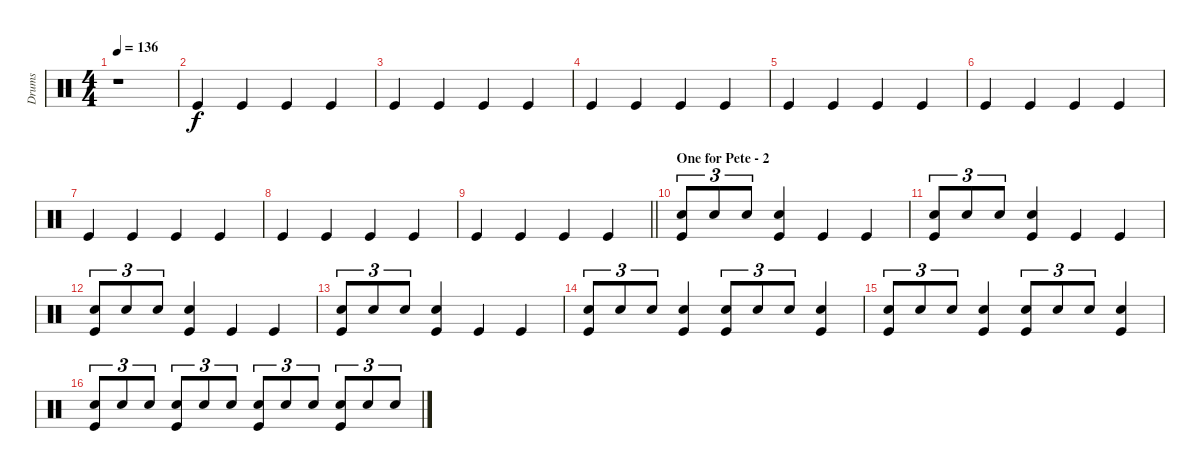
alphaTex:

\track ("Drums" "Drums") {instrument percussion}
\staff {score}
\articulation defaults
\ts (4 4)
\tempo 136
\clef neutral
\ks c
r.1{dy f} |
"Kick (hit)".4 "Kick (hit)".4 "Kick (hit)".4 "Kick (hit)".4 |
"Kick (hit)".4 "Kick (hit)".4 "Kick (hit)".4 "Kick (hit)".4 |
"Kick (hit)".4 "Kick (hit)".4 "Kick (hit)".4 "Kick (hit)".4 |
"Kick (hit)".4 "Kick (hit)".4 "Kick (hit)".4 "Kick (hit)".4 |
"Kick (hit)".4 "Kick (hit)".4 "Kick (hit)".4 "Kick (hit)".4 |
"Kick (hit)".4 "Kick (hit)".4 "Kick (hit)".4 "Kick (hit)".4 |
"Kick (hit)".4 "Kick (hit)".4 "Kick (hit)".4 "Kick (hit)".4 |
\barLineRight lightlight "Kick (hit)".4 "Kick (hit)".4 "Kick (hit)".4 "Kick (hit)".4
|
\section ("" "One for Pete - 2")
("Electric Snare (hit)" "Kick (hit)").8{tu (3 2)} "Electric Snare (hit)".8{tu (3 2)} "Electric Snare (hit)".8{tu (3 2)} ("Electric Snare (hit)" "Kick (hit)").4 "Kick (hit)".4 "Kick (hit)".4 |
("Electric Snare (hit)" "Kick (hit)").8{tu (3 2)} "Electric Snare (hit)".8{tu (3 2)} "Electric Snare (hit)".8{tu (3 2)} ("Electric Snare (hit)" "Kick (hit)").4 "Kick (hit)".4 "Kick (hit)".4 |
("Electric Snare (hit)" "Kick (hit)").8{tu (3 2)} "Electric Snare (hit)".8{tu (3 2)} "Electric Snare (hit)".8{tu (3 2)} ("Electric Snare (hit)" "Kick (hit)").4 "Kick (hit)".4 "Kick (hit)".4 |
("Electric Snare (hit)" "Kick (hit)").8{tu (3 2)} "Electric Snare (hit)".8{tu (3 2)} "Electric Snare (hit)".8{tu (3 2)} ("Electric Snare (hit)" "Kick (hit)").4 "Kick (hit)".4 "Kick (hit)".4 |
("Electric Snare (hit)" "Kick (hit)").8{tu (3 2)} "Electric Snare (hit)".8{tu (3 2)} "Electric Snare (hit)".8{tu (3 2)} ("Electric Snare (hit)" "Kick (hit)").4 ("Electric Snare (hit)" "Kick (hit)").8{tu (3 2)} "Electric Snare (hit)".8{tu (3 2)} "Electric Snare (hit)".8{tu (3 2)} ("Electric Snare (hit)" "Kick (hit)").4 |
("Electric Snare (hit)" "Kick (hit)").8{tu (3 2)} "Electric Snare (hit)".8{tu (3 2)} "Electric Snare (hit)".8{tu (3 2)} ("Electric Snare (hit)" "Kick (hit)").4 ("Electric Snare (hit)" "Kick (hit)").8{tu (3 2)} "Electric Snare (hit)".8{tu (3 2)} "Electric Snare (hit)".8{tu (3 2)} ("Electric Snare (hit)" "Kick (hit)").4 |
("Electric Snare (hit)" "Kick (hit)").8{tu (3 2)} "Electric Snare (hit)".8{tu (3 2)} "Electric Snare (hit)".8{tu (3 2)} ("Electric Snare (hit)" "Kick (hit)").8{tu (3 2)} "Electric Snare (hit)".8{tu (3 2)} "Electric Snare (hit)".8{tu (3 2)} ("Electric Snare (hit)" "Kick (hit)").8{tu (3 2)} "Electric Snare (hit)".8{tu (3 2)} "Electric Snare (hit)".8{tu (3 2)} ("Electric Snare (hit)" "Kick (hit)").8{tu (3 2)} "Electric Snare (hit)".8{tu (3 2)} "Electric Snare (hit)".8{tu (3 2)}
